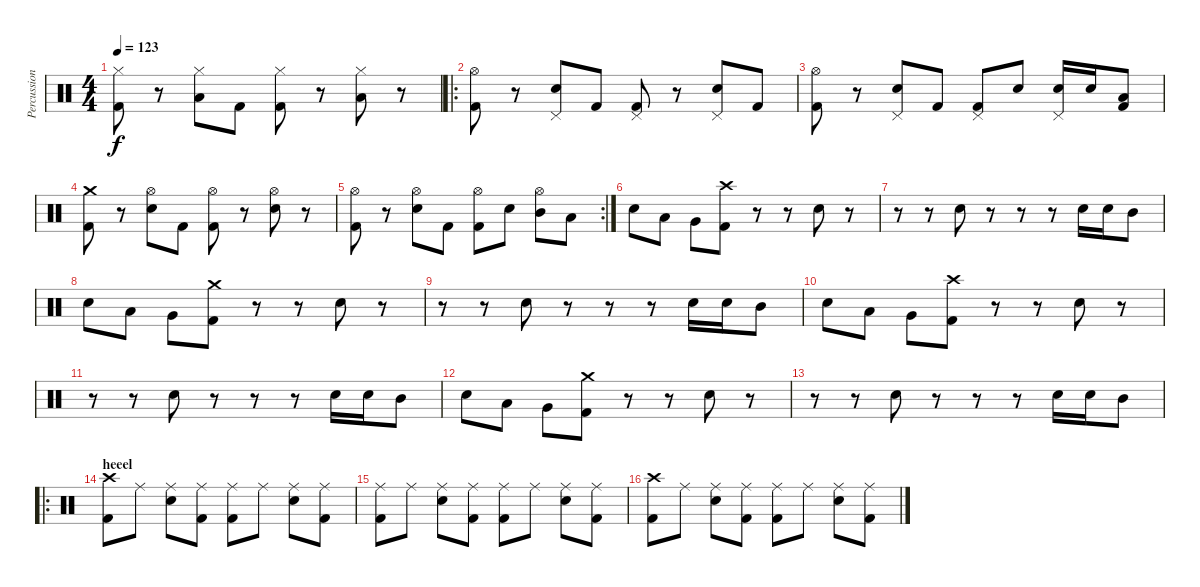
\track ("Percussion" "Percussion") {instrument percussion}
\staff {score}
\articulation defaults
\ts (4 4)
\tempo 123
\clef neutral
\ks c
("Hi-Hat (closed)" "Kick (hit) 2").8{dy f} r.8 ("Hi-Hat (closed)" "Low Tom (hit)").8 "Kick (hit) 2".8 ("Hi-Hat (closed)" "Kick (hit) 2").8 r.8 ("Hi-Hat (closed)" "Low Tom (hit)").8 r.8 |
\ro
\section ("" "")
("Hi-Hat (open)" "Kick (hit) 2").8 r.8 ("Pedal Hi-Hat (hit)" "Electric Snare (hit)").8 "Kick (hit) 2".8 ("Pedal Hi-Hat (hit)" "Kick (hit) 2").8 r.8 ("Pedal Hi-Hat (hit)" "Electric Snare (hit)").8 "Kick (hit) 2".8 |
("Hi-Hat (open)" "Kick (hit) 2").8 r.8 ("Pedal Hi-Hat (hit)" "Electric Snare (hit)").8 "Kick (hit) 2".8 ("Pedal Hi-Hat (hit)" "Kick (hit) 2").8 "Electric Snare (hit)".8 ("Pedal Hi-Hat (hit)" "Electric Snare (hit)").16 "Electric Snare (hit)".16 ("Low Tom (hit)" "Kick (hit) 2").8 |
("Crash medium (hit)" "Kick (hit) 2").8 r.8 ("Hi-Hat (open)" "Electric Snare (hit)").8 "Kick (hit) 2".8 ("Hi-Hat (open)" "Kick (hit) 2").8 r.8 ("Hi-Hat (open)" "Electric Snare (hit)").8 r.8 |
\rc 2
("Hi-Hat (open)" "Kick (hit) 2").8 r.8 ("Hi-Hat (open)" "Electric Snare (hit)").8 "Kick (hit) 2".8 ("Hi-Hat (open)" "Kick (hit) 2").8 "Electric Snare (hit)".8 ("Hi-Hat (open)" "Mid Tom (hit)").8 "Low Tom (hit)".8 |
\section ("" "")
"Electric Snare (hit)".8 "Low Tom (hit)".8 "Very Low Tom (hit)".8 ("Crash high (hit)" "Kick (hit) 2").8 r.8 r.8 "Electric Snare (hit)".8 r.8 |
r.8 r.8 "Electric Snare (hit)".8 r.8 r.8 r.8 "Electric Snare (hit)".16 "Electric Snare (hit)".16 "Mid Tom (hit)".8 |
"Electric Snare (hit)".8 "Low Tom (hit)".8 "Very Low Tom (hit)".8 ("Crash medium (hit)" "Kick (hit) 2").8 r.8 r.8 "Electric Snare (hit)".8 r.8 |
r.8 r.8 "Electric Snare (hit)".8 r.8 r.8 r.8 "Electric Snare (hit)".16 "Electric Snare (hit)".16 "Mid Tom (hit)".8 |
"Electric Snare (hit)".8 "Low Tom (hit)".8 "Very Low Tom (hit)".8 ("Crash high (hit)" "Kick (hit) 2").8 r.8 r.8 "Electric Snare (hit)".8 r.8 |
r.8 r.8 "Electric Snare (hit)".8 r.8 r.8 r.8 "Electric Snare (hit)".16 "Electric Snare (hit)".16 "Mid Tom (hit)".8 |
"Electric Snare (hit)".8 "Low Tom (hit)".8 "Very Low Tom (hit)".8 ("Crash medium (hit)" "Kick (hit) 2").8 r.8 r.8 "Electric Snare (hit)".8 r.8 |
r.8 r.8 "Electric Snare (hit)".8 r.8 r.8 r.8 "Electric Snare (hit)".16 "Electric Snare (hit)".16 "Mid Tom (hit)".8 |
\ro
\section ("" "heeel")
("Crash high (hit)" "Kick (hit) 2").8 "Ride (middle)".8 ("Ride (middle)" "Electric Snare (hit)").8 ("Ride (middle)" "Kick (hit) 2").8 ("Ride (middle)" "Kick (hit) 2").8 "Ride (middle)".8 ("Ride (middle)" "Electric Snare (hit)").8 ("Ride (middle)" "Kick (hit) 2").8 |
("Ride (middle)" "Kick (hit) 2").8 "Ride (middle)".8 ("Ride (middle)" "Electric Snare (hit)").8 ("Ride (middle)" "Kick (hit) 2").8 ("Ride (middle)" "Kick (hit) 2").8 "Ride (middle)".8 ("Ride (middle)" "Electric Snare (hit)").8 ("Ride (middle)" "Kick (hit) 2").8 |
("Crash high (hit)" "Kick (hit) 2").8 "Ride (middle)".8 ("Ride (middle)" "Electric Snare (hit)").8 ("Ride (middle)" "Kick (hit) 2").8 ("Ride (middle)" "Kick (hit) 2").8 "Ride (middle)".8 ("Ride (middle)" "Electric Snare (hit)").8 ("Ride (middle)" "Kick (hit) 2").8
